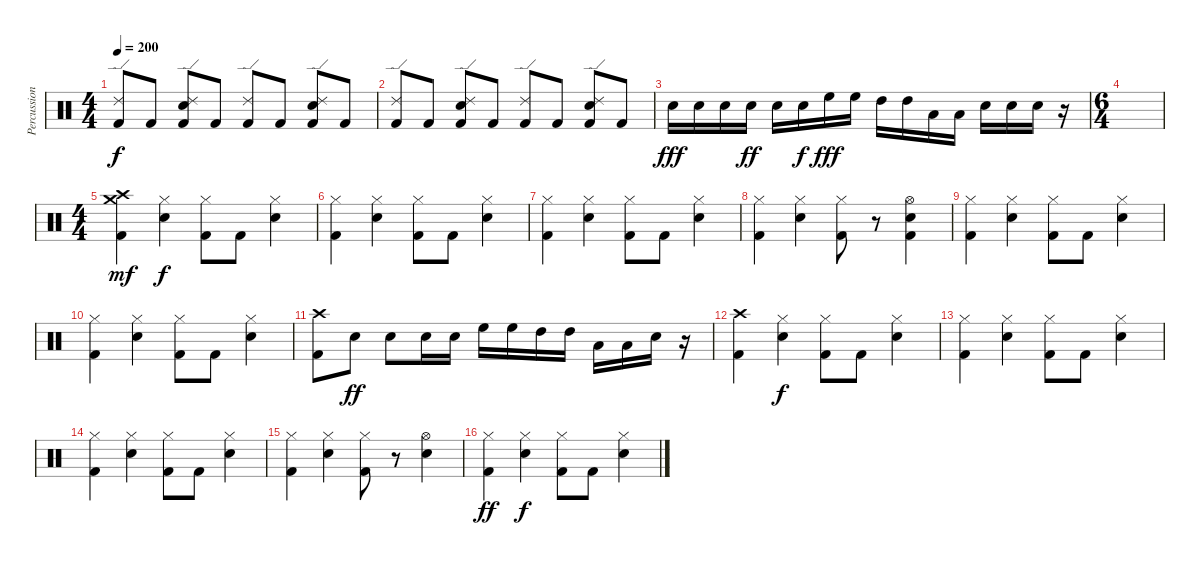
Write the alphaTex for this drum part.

\track ("Percussion" "Percussion") {instrument percussion}
\staff {score}
\articulation defaults
\ts (4 4)
\tempo 200
\clef neutral
\ks c
("Ride (edge) 2" "Kick (hit) 2").8{dy f} "Kick (hit) 2".8 ("Ride (edge) 2" "Snare (hit) 2" "Kick (hit) 2").8 "Kick (hit) 2".8 ("Ride (edge) 2" "Kick (hit) 2").8 "Kick (hit) 2".8 ("Ride (edge) 2" "Snare (hit) 2" "Kick (hit) 2").8 "Kick (hit) 2".8 |
("Ride (edge) 2" "Kick (hit) 2").8 "Kick (hit) 2".8 ("Ride (edge) 2" "Snare (hit) 2" "Kick (hit) 2").8 "Kick (hit) 2".8 ("Ride (edge) 2" "Kick (hit) 2").8 "Kick (hit) 2".8 ("Ride (edge) 2" "Snare (hit) 2" "Kick (hit) 2").8 "Kick (hit) 2".8 |
"Snare (hit) 2".16{dy fff} "Snare (hit) 2".16 "Snare (hit) 2".16 "Snare (hit) 2".16{dy ff} "Snare (hit) 2".16 "Snare (hit) 2".16{dy f} "High Floor Tom (hit)".16{dy fff} "High Floor Tom (hit)".16 "High Tom (hit)".16 "High Tom (hit)".16 "Low Tom (hit)".16 "Low Tom (hit)".16 "Snare (hit) 2".16 "Snare (hit) 2".16 "Snare (hit) 2".16 r.16 |
\ts (6 4)
|
\ts (4 4)
("Crash high (hit)" "Crash medium (hit)" "Kick (hit) 2").4{dy mf} ("Hi-Hat (closed)" "Snare (hit) 2").4{dy f} ("Hi-Hat (closed)" "Kick (hit) 2").8 "Kick (hit) 2".8 ("Hi-Hat (closed)" "Snare (hit) 2").4 |
("Hi-Hat (closed)" "Kick (hit) 2").4 ("Hi-Hat (closed)" "Snare (hit) 2").4 ("Hi-Hat (closed)" "Kick (hit) 2").8 "Kick (hit) 2".8 ("Hi-Hat (closed)" "Snare (hit) 2").4 |
("Hi-Hat (closed)" "Kick (hit) 2").4 ("Hi-Hat (closed)" "Snare (hit) 2").4 ("Hi-Hat (closed)" "Kick (hit) 2").8 "Kick (hit) 2".8 ("Hi-Hat (closed)" "Snare (hit) 2").4 |
("Hi-Hat (closed)" "Kick (hit) 2").4 ("Hi-Hat (closed)" "Snare (hit) 2").4 ("Hi-Hat (closed)" "Kick (hit) 2").8 r.8 ("Hi-Hat (open)" "Snare (hit) 2" "Kick (hit) 2").4 |
("Hi-Hat (closed)" "Kick (hit) 2").4 ("Hi-Hat (closed)" "Snare (hit) 2").4 ("Hi-Hat (closed)" "Kick (hit) 2").8 "Kick (hit) 2".8 ("Hi-Hat (closed)" "Snare (hit) 2").4 |
("Hi-Hat (closed)" "Kick (hit) 2").4 ("Hi-Hat (closed)" "Snare (hit) 2").4 ("Hi-Hat (closed)" "Kick (hit) 2").8 "Kick (hit) 2".8 ("Hi-Hat (closed)" "Snare (hit) 2").4 |
("Crash high (hit)" "Kick (hit) 2").8 "Snare (hit) 2".8{dy ff} "Snare (hit) 2".8 "Snare (hit) 2".16 "Snare (hit) 2".16 "High Floor Tom (hit)".16 "High Floor Tom (hit)".16 "High Tom (hit)".16 "High Tom (hit)".16 "Low Tom (hit)".16 "Low Tom (hit)".16 "Snare (hit) 2".16 r.16 |
("Crash high (hit)" "Kick (hit) 2").4 ("Hi-Hat (closed)" "Snare (hit) 2").4{dy f} ("Hi-Hat (closed)" "Kick (hit) 2").8 "Kick (hit) 2".8 ("Hi-Hat (closed)" "Snare (hit) 2").4 |
("Hi-Hat (closed)" "Kick (hit) 2").4 ("Hi-Hat (closed)" "Snare (hit) 2").4 ("Hi-Hat (closed)" "Kick (hit) 2").8 "Kick (hit) 2".8 ("Hi-Hat (closed)" "Snare (hit) 2").4 |
("Hi-Hat (closed)" "Kick (hit) 2").4 ("Hi-Hat (closed)" "Snare (hit) 2").4 ("Hi-Hat (closed)" "Kick (hit) 2").8 "Kick (hit) 2".8 ("Hi-Hat (closed)" "Snare (hit) 2").4 |
("Hi-Hat (closed)" "Kick (hit) 2").4 ("Hi-Hat (closed)" "Snare (hit) 2").4 ("Hi-Hat (closed)" "Kick (hit) 2").8 r.8 ("Hi-Hat (open)" "Snare (hit) 2").4 |
("Hi-Hat (closed)" "Kick (hit) 2").4{dy ff} ("Hi-Hat (closed)" "Snare (hit) 2").4{dy f} ("Hi-Hat (closed)" "Kick (hit) 2").8 "Kick (hit) 2".8 ("Hi-Hat (closed)" "Snare (hit) 2").4
